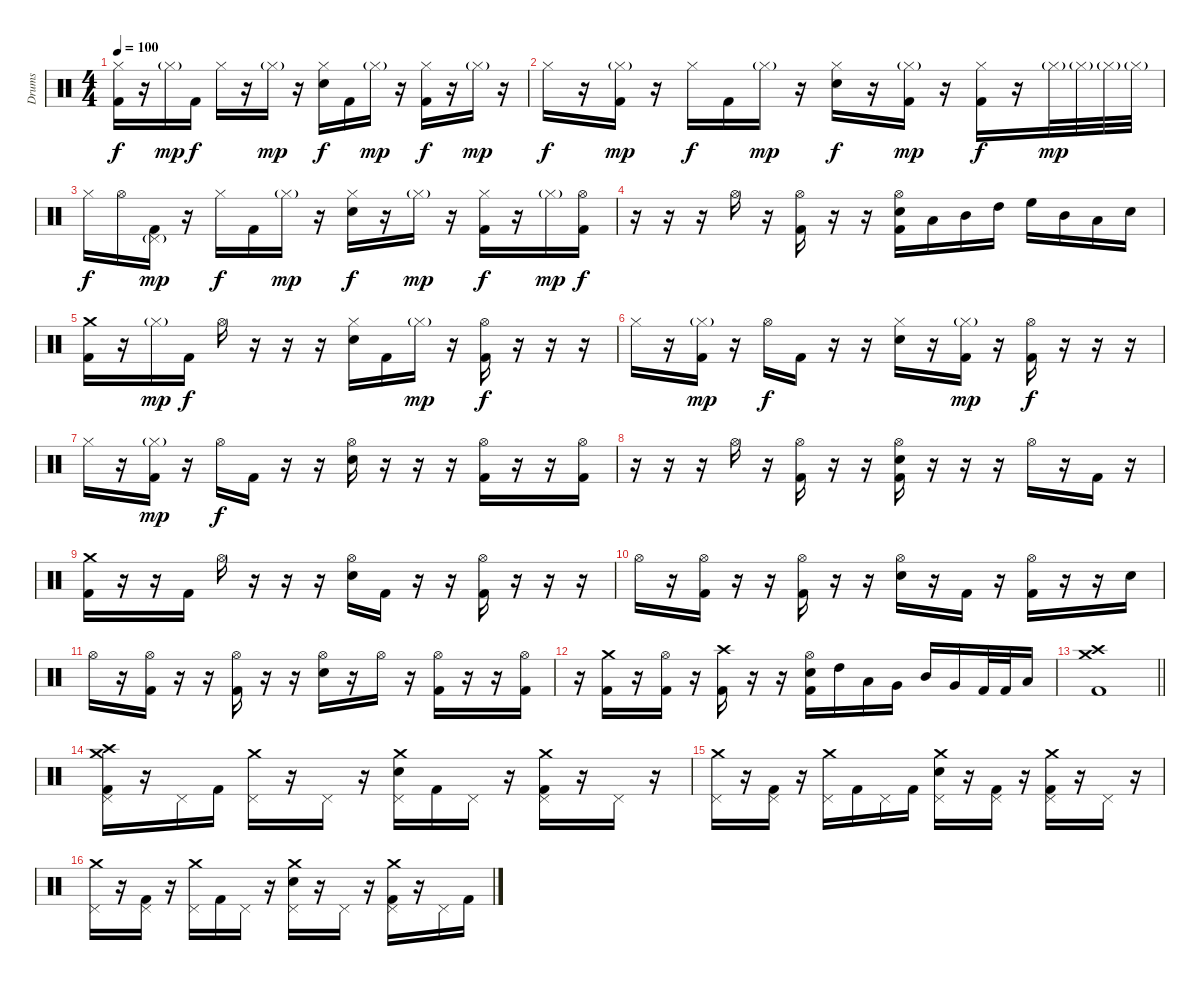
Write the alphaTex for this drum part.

\track ("Drums" "Drums") {instrument percussion}
\staff {score}
\articulation defaults
\ts (4 4)
\tempo 100
\clef neutral
\ks c
("Hi-Hat (closed)" "Kick (hit) 2").16{dy f} r.16 "Hi-Hat (closed)"{g}.16{dy mp} "Kick (hit) 2".16{dy f} "Hi-Hat (closed)".16 r.16 "Hi-Hat (closed)"{g}.16{dy mp} r.16 ("Hi-Hat (closed)" "Electric Snare (hit)").16{dy f} "Kick (hit) 2".16 "Hi-Hat (closed)"{g}.16{dy mp} r.16 ("Hi-Hat (closed)" "Kick (hit) 2").16{dy f} r.16 "Hi-Hat (closed)"{g}.16{dy mp} r.16 |
"Hi-Hat (closed)".16{dy f} r.16 ("Hi-Hat (closed)"{g} "Kick (hit) 2").16{dy mp} r.16 "Hi-Hat (closed)".16{dy f} "Kick (hit) 2".16 "Hi-Hat (closed)"{g}.16{dy mp} r.16 ("Hi-Hat (closed)" "Electric Snare (hit)").16{dy f} r.16 ("Hi-Hat (closed)"{g} "Kick (hit) 2").16{dy mp} r.16 ("Hi-Hat (closed)" "Kick (hit) 2").16{dy f} r.16 "Hi-Hat (closed)"{g}.32{dy mp} "Hi-Hat (closed)"{g}.32 "Hi-Hat (closed)"{g}.32 "Hi-Hat (closed)"{g}.32 |
"Hi-Hat (closed)".16{dy f} "Hi-Hat (open)".16 ("Pedal Hi-Hat (hit)"{g} "Kick (hit) 2").16{dy mp} r.16 "Hi-Hat (closed)".16{dy f} "Kick (hit) 2".16 "Hi-Hat (closed)"{g}.16{dy mp} r.16 ("Hi-Hat (closed)" "Electric Snare (hit)").16{dy f} r.16 "Hi-Hat (closed)"{g}.16{dy mp} r.16 ("Hi-Hat (closed)" "Kick (hit) 2").16{dy f} r.16 "Hi-Hat (closed)"{g}.16{dy mp} ("Hi-Hat (open)" "Kick (hit) 2").16{dy f} |
r.16 r.16 r.16 "Hi-Hat (open)".16 r.16 ("Hi-Hat (open)" "Kick (hit) 2").16 r.16 r.16 ("Hi-Hat (open)" "Electric Snare (hit)" "Kick (hit) 2").16 "Low Tom (hit)".16 "Mid Tom (hit)".16 "High Tom (hit)".16 "High Floor Tom (hit)".16 "Mid Tom (hit)".16 "Low Tom (hit)".16 "Electric Snare (hit)".16 |
("Crash medium (hit)" "Kick (hit) 2").16 r.16 "Hi-Hat (closed)"{g}.16{dy mp} "Kick (hit) 2".16{dy f} "Hi-Hat (open)".16 r.16 r.16 r.16 ("Hi-Hat (closed)" "Electric Snare (hit)").16 "Kick (hit) 2".16 "Hi-Hat (closed)"{g}.16{dy mp} r.16 ("Hi-Hat (open)" "Kick (hit) 2").16{dy f} r.16 r.16 r.16 |
"Hi-Hat (closed)".16 r.16 ("Hi-Hat (closed)"{g} "Kick (hit) 2").16{dy mp} r.16 "Hi-Hat (open)".16{dy f} "Kick (hit) 2".16 r.16 r.16 ("Hi-Hat (closed)" "Electric Snare (hit)").16 r.16 ("Hi-Hat (closed)"{g} "Kick (hit) 2").16{dy mp} r.16 ("Hi-Hat (open)" "Kick (hit) 2").16{dy f} r.16 r.16 r.16 |
"Hi-Hat (closed)".16 r.16 ("Hi-Hat (closed)"{g} "Kick (hit) 2").16{dy mp} r.16 "Hi-Hat (open)".16{dy f} "Kick (hit) 2".16 r.16 r.16 ("Hi-Hat (open)" "Electric Snare (hit)").16 r.16 r.16 r.16 ("Hi-Hat (open)" "Kick (hit) 2").16 r.16 r.16 ("Hi-Hat (open)" "Kick (hit) 2").16 |
r.16 r.16 r.16 "Hi-Hat (open)".16 r.16 ("Hi-Hat (open)" "Kick (hit) 2").16 r.16 r.16 ("Hi-Hat (open)" "Electric Snare (hit)" "Kick (hit) 2").16 r.16 r.16 r.16 "Hi-Hat (open)".16 r.16 "Kick (hit) 2".16 r.16 |
("Crash medium (hit)" "Kick (hit) 2").16 r.16 r.16 "Kick (hit) 2".16 "Hi-Hat (open)".16 r.16 r.16 r.16 ("Hi-Hat (open)" "Electric Snare (hit)").16 "Kick (hit) 2".16 r.16 r.16 ("Hi-Hat (open)" "Kick (hit) 2").16 r.16 r.16 r.16 |
"Hi-Hat (open)".16 r.16 ("Hi-Hat (open)" "Kick (hit) 2").16 r.16 r.16 ("Hi-Hat (open)" "Kick (hit) 2").16 r.16 r.16 ("Hi-Hat (open)" "Electric Snare (hit)").16 r.16 "Kick (hit) 2".16 r.16 ("Hi-Hat (open)" "Kick (hit) 2").16 r.16 r.16 "Electric Snare (hit)".16 |
"Hi-Hat (open)".16 r.16 ("Hi-Hat (open)" "Kick (hit) 2").16 r.16 r.16 ("Hi-Hat (open)" "Kick (hit) 2").16 r.16 r.16 ("Hi-Hat (open)" "Electric Snare (hit)").16 r.16 "Hi-Hat (open)".16 r.16 ("Hi-Hat (open)" "Kick (hit) 2").16 r.16 r.16 ("Hi-Hat (open)" "Kick (hit) 2").16 |
r.16 ("Crash medium (hit)" "Kick (hit) 2").16 r.16 ("Hi-Hat (open)" "Kick (hit) 2").16 r.16 ("Crash high (hit)" "Kick (hit) 2").16 r.16 r.16 ("Hi-Hat (open)" "Electric Snare (hit)" "Kick (hit) 2").16 "High Tom (hit)".16 "Low Tom (hit)".16 "Very Low Tom (hit)".16 "Mid Tom (hit)".16 "Very Low Tom (hit)".16 "Kick (hit) 2".32 "Kick (hit) 2".32 "Low Floor Tom (hit)".16 |
\barLineRight lightlight
("Crash medium (hit)" "Crash high (hit)" "Kick (hit) 2").1 |
\section ("" "")
("Crash medium (hit)" "Crash high (hit)" "Pedal Hi-Hat (hit)" "Kick (hit) 2").16 r.16 "Pedal Hi-Hat (hit)".16 "Kick (hit) 2".16 ("Crash medium (hit)" "Pedal Hi-Hat (hit)").16 r.16 "Pedal Hi-Hat (hit)".16 r.16 ("Crash medium (hit)" "Pedal Hi-Hat (hit)" "Electric Snare (hit)").16 "Kick (hit) 2".16 "Pedal Hi-Hat (hit)".16 r.16 ("Crash medium (hit)" "Pedal Hi-Hat (hit)" "Kick (hit) 2").16 r.16 "Pedal Hi-Hat (hit)".16 r.16 |
("Crash medium (hit)" "Pedal Hi-Hat (hit)").16 r.16 ("Pedal Hi-Hat (hit)" "Kick (hit) 2").16 r.16 ("Crash medium (hit)" "Pedal Hi-Hat (hit)").16 "Kick (hit) 2".16 "Pedal Hi-Hat (hit)".16 "Kick (hit) 2".16 ("Crash medium (hit)" "Pedal Hi-Hat (hit)" "Electric Snare (hit)").16 r.16 ("Pedal Hi-Hat (hit)" "Kick (hit) 2").16 r.16 ("Crash medium (hit)" "Pedal Hi-Hat (hit)" "Kick (hit) 2").16 r.16 "Pedal Hi-Hat (hit)".16 r.16 |
("Crash medium (hit)" "Pedal Hi-Hat (hit)").16 r.16 ("Pedal Hi-Hat (hit)" "Kick (hit) 2").16 r.16 ("Crash medium (hit)" "Pedal Hi-Hat (hit)").16 "Kick (hit) 2".16 "Pedal Hi-Hat (hit)".16 r.16 ("Crash medium (hit)" "Pedal Hi-Hat (hit)" "Electric Snare (hit)").16 r.16 "Pedal Hi-Hat (hit)".16 r.16 ("Crash medium (hit)" "Pedal Hi-Hat (hit)" "Kick (hit) 2").16 r.16 "Pedal Hi-Hat (hit)".16 "Kick (hit) 2".16
